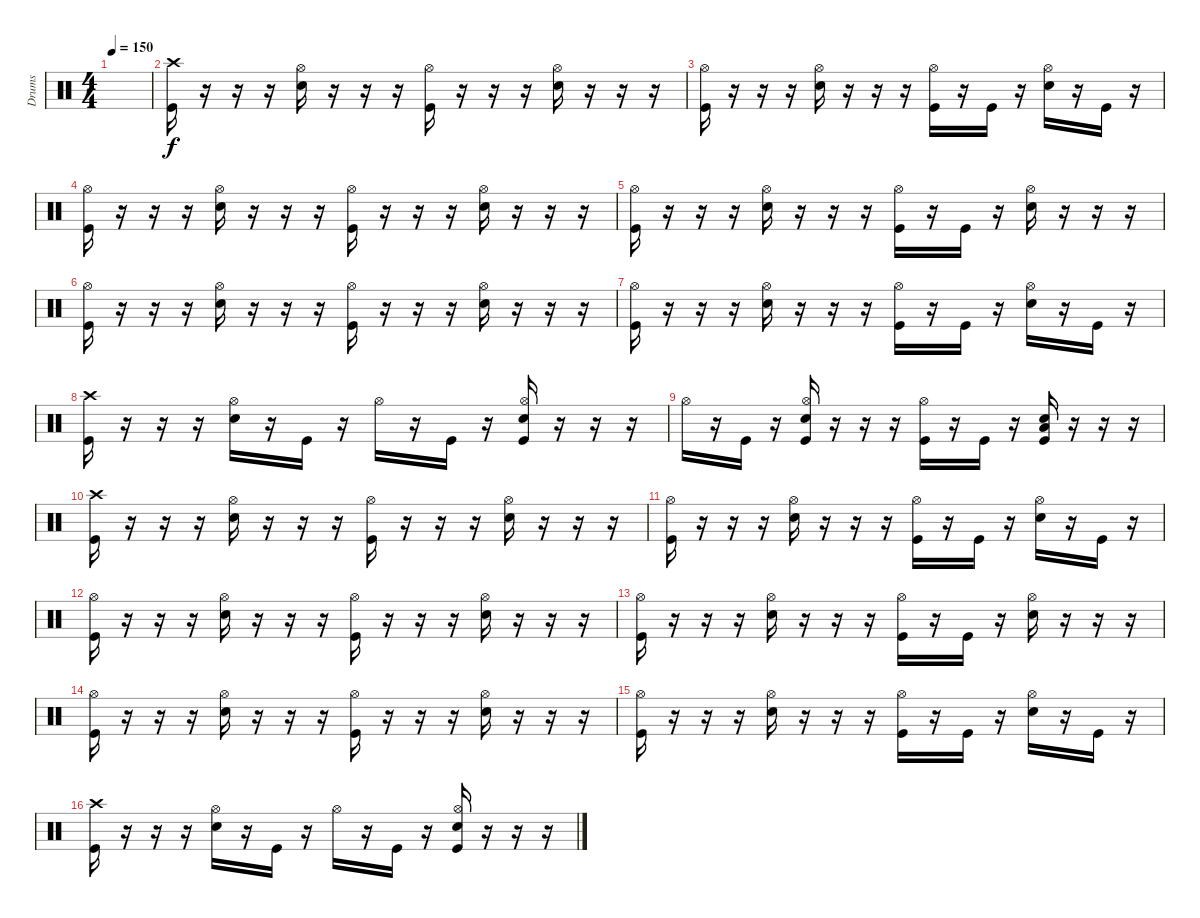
\track ("Drums" "Drums") {instrument percussion}
\staff {score}
\articulation defaults
\ts (4 4)
\tempo 150
\clef neutral
\ks c
|
("Crash high (hit)" "Kick (hit)").16 r.16 r.16 r.16 ("Hi-Hat (open)" "Snare (hit) 2").16 r.16 r.16 r.16 ("Hi-Hat (open)" "Kick (hit)").16 r.16 r.16 r.16 ("Hi-Hat (open)" "Snare (hit) 2").16 r.16 r.16 r.16 |
("Hi-Hat (open)" "Kick (hit)").16 r.16 r.16 r.16 ("Hi-Hat (open)" "Snare (hit) 2").16 r.16 r.16 r.16 ("Hi-Hat (open)" "Kick (hit)").16 r.16 "Kick (hit)".16 r.16 ("Hi-Hat (open)" "Snare (hit) 2").16 r.16 "Kick (hit)".16 r.16 |
("Hi-Hat (open)" "Kick (hit)").16 r.16 r.16 r.16 ("Hi-Hat (open)" "Snare (hit) 2").16 r.16 r.16 r.16 ("Hi-Hat (open)" "Kick (hit)").16 r.16 r.16 r.16 ("Hi-Hat (open)" "Snare (hit) 2").16 r.16 r.16 r.16 |
("Hi-Hat (open)" "Kick (hit)").16 r.16 r.16 r.16 ("Hi-Hat (open)" "Snare (hit) 2").16 r.16 r.16 r.16 ("Hi-Hat (open)" "Kick (hit)").16 r.16 "Kick (hit)".16 r.16 ("Hi-Hat (open)" "Snare (hit) 2").16 r.16 r.16 r.16 |
("Hi-Hat (open)" "Kick (hit)").16 r.16 r.16 r.16 ("Hi-Hat (open)" "Snare (hit) 2").16 r.16 r.16 r.16 ("Hi-Hat (open)" "Kick (hit)").16 r.16 r.16 r.16 ("Hi-Hat (open)" "Snare (hit) 2").16 r.16 r.16 r.16 |
("Hi-Hat (open)" "Kick (hit)").16 r.16 r.16 r.16 ("Hi-Hat (open)" "Snare (hit) 2").16 r.16 r.16 r.16 ("Hi-Hat (open)" "Kick (hit)").16 r.16 "Kick (hit)".16 r.16 ("Hi-Hat (open)" "Snare (hit) 2").16 r.16 "Kick (hit)".16 r.16 |
("Crash high (hit)" "Kick (hit)").16 r.16 r.16 r.16 ("Hi-Hat (open)" "Snare (hit) 2").16 r.16 "Kick (hit)".16 r.16 "Hi-Hat (open)".16 r.16 "Kick (hit)".16 r.16 ("Hi-Hat (open)" "Snare (hit) 2" "Kick (hit)").16 r.16 r.16 r.16 |
"Hi-Hat (open)".16 r.16 "Kick (hit)".16 r.16 ("Hi-Hat (open)" "Snare (hit) 2" "Kick (hit)").16 r.16 r.16 r.16 ("Hi-Hat (open)" "Kick (hit)").16 r.16 "Kick (hit)".16 r.16 ("Low Floor Tom (hit)" "Snare (hit) 2" "Kick (hit)").16 r.16 r.16 r.16 |
("Crash high (hit)" "Kick (hit)").16 r.16 r.16 r.16 ("Hi-Hat (open)" "Snare (hit) 2").16 r.16 r.16 r.16 ("Hi-Hat (open)" "Kick (hit)").16 r.16 r.16 r.16 ("Hi-Hat (open)" "Snare (hit) 2").16 r.16 r.16 r.16 |
("Hi-Hat (open)" "Kick (hit)").16 r.16 r.16 r.16 ("Hi-Hat (open)" "Snare (hit) 2").16 r.16 r.16 r.16 ("Hi-Hat (open)" "Kick (hit)").16 r.16 "Kick (hit)".16 r.16 ("Hi-Hat (open)" "Snare (hit) 2").16 r.16 "Kick (hit)".16 r.16 |
("Hi-Hat (open)" "Kick (hit)").16 r.16 r.16 r.16 ("Hi-Hat (open)" "Snare (hit) 2").16 r.16 r.16 r.16 ("Hi-Hat (open)" "Kick (hit)").16 r.16 r.16 r.16 ("Hi-Hat (open)" "Snare (hit) 2").16 r.16 r.16 r.16 |
("Hi-Hat (open)" "Kick (hit)").16 r.16 r.16 r.16 ("Hi-Hat (open)" "Snare (hit) 2").16 r.16 r.16 r.16 ("Hi-Hat (open)" "Kick (hit)").16 r.16 "Kick (hit)".16 r.16 ("Hi-Hat (open)" "Snare (hit) 2").16 r.16 r.16 r.16 |
("Hi-Hat (open)" "Kick (hit)").16 r.16 r.16 r.16 ("Hi-Hat (open)" "Snare (hit) 2").16 r.16 r.16 r.16 ("Hi-Hat (open)" "Kick (hit)").16 r.16 r.16 r.16 ("Hi-Hat (open)" "Snare (hit) 2").16 r.16 r.16 r.16 |
("Hi-Hat (open)" "Kick (hit)").16 r.16 r.16 r.16 ("Hi-Hat (open)" "Snare (hit) 2").16 r.16 r.16 r.16 ("Hi-Hat (open)" "Kick (hit)").16 r.16 "Kick (hit)".16 r.16 ("Hi-Hat (open)" "Snare (hit) 2").16 r.16 "Kick (hit)".16 r.16 |
("Crash high (hit)" "Kick (hit)").16 r.16 r.16 r.16 ("Hi-Hat (open)" "Snare (hit) 2").16 r.16 "Kick (hit)".16 r.16 "Hi-Hat (open)".16 r.16 "Kick (hit)".16 r.16 ("Hi-Hat (open)" "Snare (hit) 2" "Kick (hit)").16 r.16 r.16 r.16
